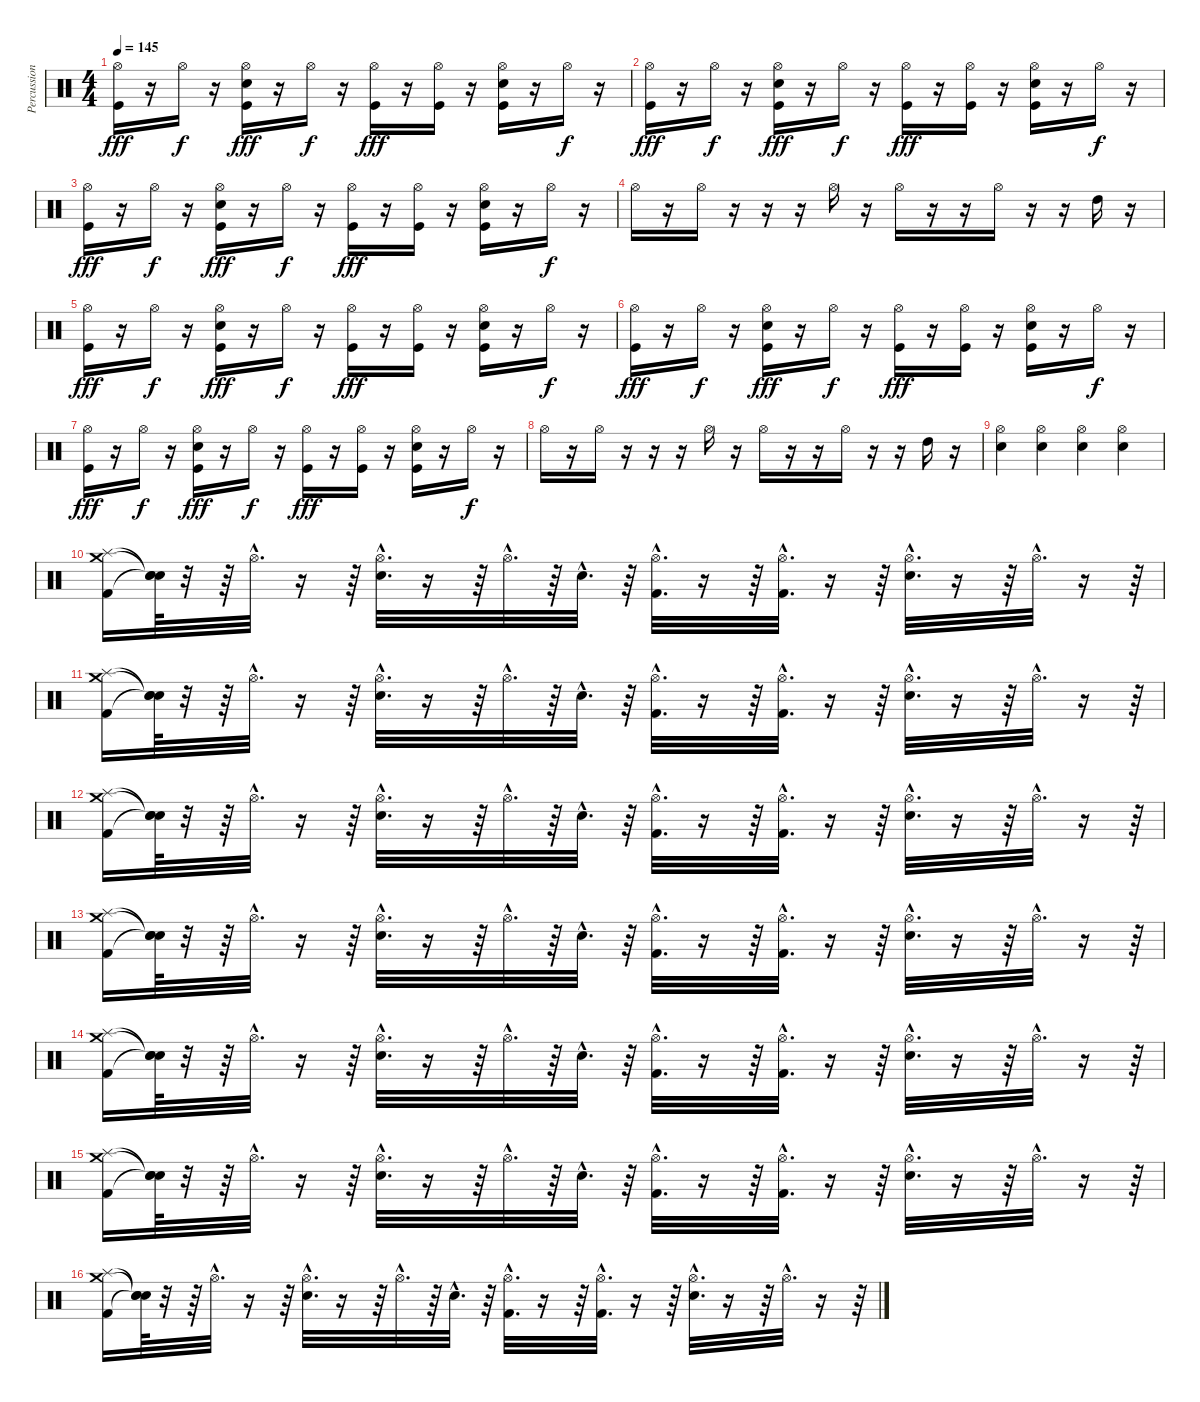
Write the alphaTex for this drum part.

\track ("Percussions" "Percussion") {instrument percussion}
\staff {score}
\articulation defaults
\ts (4 4)
\tempo 145
\clef neutral
\ks c
("Kick (hit)" "Hi-Hat (open)").16{dy fff} r.16 "Hi-Hat (open)".16{dy f} r.16 ("Snare (hit) 2" "Kick (hit)" "Hi-Hat (open)").16{dy fff} r.16 "Hi-Hat (open)".16{dy f} r.16 ("Kick (hit)" "Hi-Hat (open)").16{dy fff} r.16 ("Kick (hit)" "Hi-Hat (open)").16 r.16 ("Kick (hit)" "Snare (hit) 2" "Hi-Hat (open)").16 r.16 "Hi-Hat (open)".16{dy f} r.16 |
("Kick (hit)" "Hi-Hat (open)").16{dy fff} r.16 "Hi-Hat (open)".16{dy f} r.16 ("Snare (hit) 2" "Kick (hit)" "Hi-Hat (open)").16{dy fff} r.16 "Hi-Hat (open)".16{dy f} r.16 ("Kick (hit)" "Hi-Hat (open)").16{dy fff} r.16 ("Kick (hit)" "Hi-Hat (open)").16 r.16 ("Kick (hit)" "Snare (hit) 2" "Hi-Hat (open)").16 r.16 "Hi-Hat (open)".16{dy f} r.16 |
("Kick (hit)" "Hi-Hat (open)").16{dy fff} r.16 "Hi-Hat (open)".16{dy f} r.16 ("Snare (hit) 2" "Kick (hit)" "Hi-Hat (open)").16{dy fff} r.16 "Hi-Hat (open)".16{dy f} r.16 ("Kick (hit)" "Hi-Hat (open)").16{dy fff} r.16 ("Kick (hit)" "Hi-Hat (open)").16 r.16 ("Kick (hit)" "Snare (hit) 2" "Hi-Hat (open)").16 r.16 "Hi-Hat (open)".16{dy f} r.16 |
"Hi-Hat (open)".16 r.16 "Hi-Hat (open)".16 r.16 r.16 r.16 "Hi-Hat (open)".16 r.16 "Hi-Hat (open)".16 r.16 r.16 "Hi-Hat (open)".16 r.16 r.16 "High Tom (hit)".16 r.16 |
("Kick (hit)" "Hi-Hat (open)").16{dy fff} r.16 "Hi-Hat (open)".16{dy f} r.16 ("Snare (hit) 2" "Kick (hit)" "Hi-Hat (open)").16{dy fff} r.16 "Hi-Hat (open)".16{dy f} r.16 ("Kick (hit)" "Hi-Hat (open)").16{dy fff} r.16 ("Kick (hit)" "Hi-Hat (open)").16 r.16 ("Kick (hit)" "Snare (hit) 2" "Hi-Hat (open)").16 r.16 "Hi-Hat (open)".16{dy f} r.16 |
("Kick (hit)" "Hi-Hat (open)").16{dy fff} r.16 "Hi-Hat (open)".16{dy f} r.16 ("Snare (hit) 2" "Kick (hit)" "Hi-Hat (open)").16{dy fff} r.16 "Hi-Hat (open)".16{dy f} r.16 ("Kick (hit)" "Hi-Hat (open)").16{dy fff} r.16 ("Kick (hit)" "Hi-Hat (open)").16 r.16 ("Kick (hit)" "Snare (hit) 2" "Hi-Hat (open)").16 r.16 "Hi-Hat (open)".16{dy f} r.16 |
("Kick (hit)" "Hi-Hat (open)").16{dy fff} r.16 "Hi-Hat (open)".16{dy f} r.16 ("Snare (hit) 2" "Kick (hit)" "Hi-Hat (open)").16{dy fff} r.16 "Hi-Hat (open)".16{dy f} r.16 ("Kick (hit)" "Hi-Hat (open)").16{dy fff} r.16 ("Kick (hit)" "Hi-Hat (open)").16 r.16 ("Kick (hit)" "Snare (hit) 2" "Hi-Hat (open)").16 r.16 "Hi-Hat (open)".16{dy f} r.16 |
"Hi-Hat (open)".16 r.16 "Hi-Hat (open)".16 r.16 r.16 r.16 "Hi-Hat (open)".16 r.16 "Hi-Hat (open)".16 r.16 r.16 "Hi-Hat (open)".16 r.16 r.16 "High Tom (hit)".16 r.16 |
("Hi-Hat (open)" "Snare (hit) 2").4 ("Hi-Hat (open)" "Snare (hit) 2").4 ("Hi-Hat (open)" "Snare (hit) 2").4 ("Hi-Hat (open)" "Snare (hit) 2").4 |
("Crash medium (hit)" "Splash (hit)" "Kick (hit) 2").16 ("Snare (hit)"{t} "Snare (hit)"{t} "Snare (hit)"{t}).64 r.32 r.64 "Hi-Hat (open)"{hac}.32{d} r.16 r.64 ("Hi-Hat (open)"{hac} "Electric Snare (hit)"{hac}).32{d} r.16 r.64 "Hi-Hat (open)"{hac}.32{d} r.64 "Electric Snare (hit)"{hac}.32{d} r.64 ("Hi-Hat (open)"{hac} "Kick (hit) 2"{hac}).32{d} r.16 r.64 ("Hi-Hat (open)"{hac} "Kick (hit) 2"{hac}).32{d} r.16 r.64 ("Hi-Hat (open)"{hac} "Electric Snare (hit)"{hac}).32{d} r.16 r.64 "Hi-Hat (open)"{hac}.32{d} r.16 r.64 |
("Crash medium (hit)" "Splash (hit)" "Kick (hit) 2").16 ("Snare (hit)"{t} "Snare (hit)"{t} "Snare (hit)"{t}).64 r.32 r.64 "Hi-Hat (open)"{hac}.32{d} r.16 r.64 ("Hi-Hat (open)"{hac} "Electric Snare (hit)"{hac}).32{d} r.16 r.64 "Hi-Hat (open)"{hac}.32{d} r.64 "Electric Snare (hit)"{hac}.32{d} r.64 ("Hi-Hat (open)"{hac} "Kick (hit) 2"{hac}).32{d} r.16 r.64 ("Hi-Hat (open)"{hac} "Kick (hit) 2"{hac}).32{d} r.16 r.64 ("Hi-Hat (open)"{hac} "Electric Snare (hit)"{hac}).32{d} r.16 r.64 "Hi-Hat (open)"{hac}.32{d} r.16 r.64 |
("Crash medium (hit)" "Splash (hit)" "Kick (hit) 2").16 ("Snare (hit)"{t} "Snare (hit)"{t} "Snare (hit)"{t}).64 r.32 r.64 "Hi-Hat (open)"{hac}.32{d} r.16 r.64 ("Hi-Hat (open)"{hac} "Electric Snare (hit)"{hac}).32{d} r.16 r.64 "Hi-Hat (open)"{hac}.32{d} r.64 "Electric Snare (hit)"{hac}.32{d} r.64 ("Hi-Hat (open)"{hac} "Kick (hit) 2"{hac}).32{d} r.16 r.64 ("Hi-Hat (open)"{hac} "Kick (hit) 2"{hac}).32{d} r.16 r.64 ("Hi-Hat (open)"{hac} "Electric Snare (hit)"{hac}).32{d} r.16 r.64 "Hi-Hat (open)"{hac}.32{d} r.16 r.64 |
("Crash medium (hit)" "Splash (hit)" "Kick (hit) 2").16 ("Snare (hit)"{t} "Snare (hit)"{t} "Snare (hit)"{t}).64 r.32 r.64 "Hi-Hat (open)"{hac}.32{d} r.16 r.64 ("Hi-Hat (open)"{hac} "Electric Snare (hit)"{hac}).32{d} r.16 r.64 "Hi-Hat (open)"{hac}.32{d} r.64 "Electric Snare (hit)"{hac}.32{d} r.64 ("Hi-Hat (open)"{hac} "Kick (hit) 2"{hac}).32{d} r.16 r.64 ("Hi-Hat (open)"{hac} "Kick (hit) 2"{hac}).32{d} r.16 r.64 ("Hi-Hat (open)"{hac} "Electric Snare (hit)"{hac}).32{d} r.16 r.64 "Hi-Hat (open)"{hac}.32{d} r.16 r.64 |
("Crash medium (hit)" "Splash (hit)" "Kick (hit) 2").16 ("Snare (hit)"{t} "Snare (hit)"{t} "Snare (hit)"{t}).64 r.32 r.64 "Hi-Hat (open)"{hac}.32{d} r.16 r.64 ("Hi-Hat (open)"{hac} "Electric Snare (hit)"{hac}).32{d} r.16 r.64 "Hi-Hat (open)"{hac}.32{d} r.64 "Electric Snare (hit)"{hac}.32{d} r.64 ("Hi-Hat (open)"{hac} "Kick (hit) 2"{hac}).32{d} r.16 r.64 ("Hi-Hat (open)"{hac} "Kick (hit) 2"{hac}).32{d} r.16 r.64 ("Hi-Hat (open)"{hac} "Electric Snare (hit)"{hac}).32{d} r.16 r.64 "Hi-Hat (open)"{hac}.32{d} r.16 r.64 |
("Crash medium (hit)" "Splash (hit)" "Kick (hit) 2").16 ("Snare (hit)"{t} "Snare (hit)"{t} "Snare (hit)"{t}).64 r.32 r.64 "Hi-Hat (open)"{hac}.32{d} r.16 r.64 ("Hi-Hat (open)"{hac} "Electric Snare (hit)"{hac}).32{d} r.16 r.64 "Hi-Hat (open)"{hac}.32{d} r.64 "Electric Snare (hit)"{hac}.32{d} r.64 ("Hi-Hat (open)"{hac} "Kick (hit) 2"{hac}).32{d} r.16 r.64 ("Hi-Hat (open)"{hac} "Kick (hit) 2"{hac}).32{d} r.16 r.64 ("Hi-Hat (open)"{hac} "Electric Snare (hit)"{hac}).32{d} r.16 r.64 "Hi-Hat (open)"{hac}.32{d} r.16 r.64 |
("Crash medium (hit)" "Splash (hit)" "Kick (hit) 2").16 ("Snare (hit)"{t} "Snare (hit)"{t} "Snare (hit)"{t}).64 r.32 r.64 "Hi-Hat (open)"{hac}.32{d} r.16 r.64 ("Hi-Hat (open)"{hac} "Electric Snare (hit)"{hac}).32{d} r.16 r.64 "Hi-Hat (open)"{hac}.32{d} r.64 "Electric Snare (hit)"{hac}.32{d} r.64 ("Hi-Hat (open)"{hac} "Kick (hit) 2"{hac}).32{d} r.16 r.64 ("Hi-Hat (open)"{hac} "Kick (hit) 2"{hac}).32{d} r.16 r.64 ("Hi-Hat (open)"{hac} "Electric Snare (hit)"{hac}).32{d} r.16 r.64 "Hi-Hat (open)"{hac}.32{d} r.16 r.64
